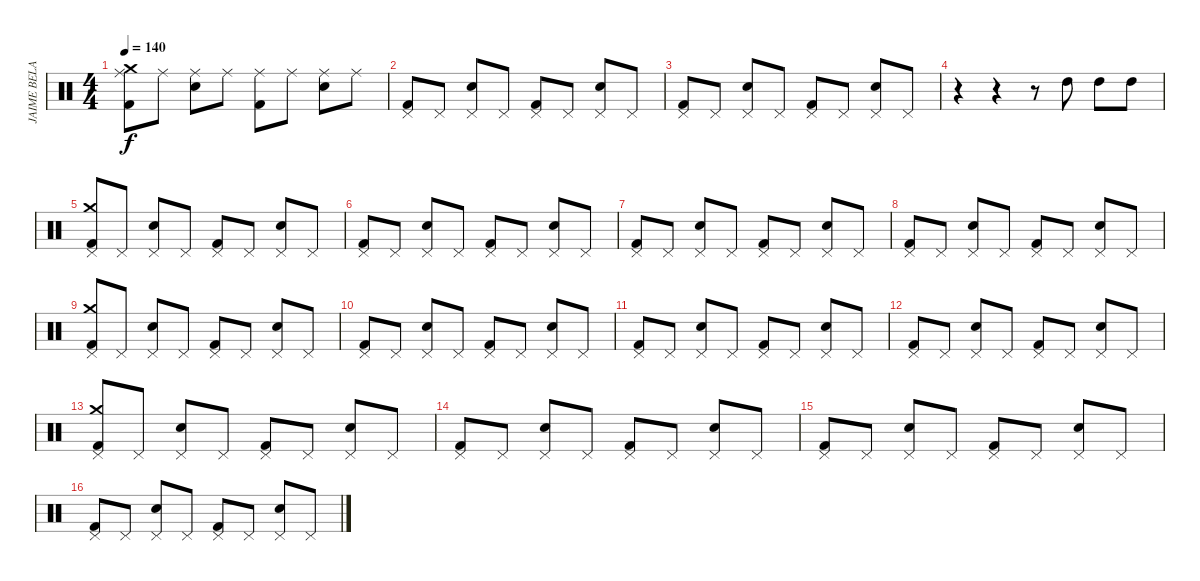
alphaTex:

\track ("JAIME BELAUSTEGUI" "JAIME BELA") {instrument percussion}
\staff {score}
\articulation defaults
\ts (4 4)
\tempo 140
\clef neutral
\ks c
("Kick (hit) 2" "Crash medium (hit)" "Ride (middle)").8{dy f} "Ride (middle)".8 ("Electric Snare (hit)" "Ride (middle)").8 "Ride (middle)".8 ("Kick (hit) 2" "Ride (middle)").8 "Ride (middle)".8 ("Electric Snare (hit)" "Ride (middle)").8 "Ride (middle)".8 |
("Kick (hit) 2" "Pedal Hi-Hat (hit)").8 "Pedal Hi-Hat (hit)".8 ("Electric Snare (hit)" "Pedal Hi-Hat (hit)").8 "Pedal Hi-Hat (hit)".8 ("Kick (hit) 2" "Pedal Hi-Hat (hit)").8 "Pedal Hi-Hat (hit)".8 ("Electric Snare (hit)" "Pedal Hi-Hat (hit)").8 "Pedal Hi-Hat (hit)".8 |
("Kick (hit) 2" "Pedal Hi-Hat (hit)").8 "Pedal Hi-Hat (hit)".8 ("Electric Snare (hit)" "Pedal Hi-Hat (hit)").8 "Pedal Hi-Hat (hit)".8 ("Kick (hit) 2" "Pedal Hi-Hat (hit)").8 "Pedal Hi-Hat (hit)".8 ("Electric Snare (hit)" "Pedal Hi-Hat (hit)").8 "Pedal Hi-Hat (hit)".8 |
r.4 r.4 r.8 "High Tom (hit)".8 "High Tom (hit)".8 "High Tom (hit)".8 |
("Kick (hit) 2" "Crash medium (hit)" "Pedal Hi-Hat (hit)").8 "Pedal Hi-Hat (hit)".8 ("Electric Snare (hit)" "Pedal Hi-Hat (hit)").8 "Pedal Hi-Hat (hit)".8 ("Kick (hit) 2" "Pedal Hi-Hat (hit)").8 "Pedal Hi-Hat (hit)".8 ("Electric Snare (hit)" "Pedal Hi-Hat (hit)").8 "Pedal Hi-Hat (hit)".8 |
("Kick (hit) 2" "Pedal Hi-Hat (hit)").8 "Pedal Hi-Hat (hit)".8 ("Electric Snare (hit)" "Pedal Hi-Hat (hit)").8 "Pedal Hi-Hat (hit)".8 ("Kick (hit) 2" "Pedal Hi-Hat (hit)").8 "Pedal Hi-Hat (hit)".8 ("Electric Snare (hit)" "Pedal Hi-Hat (hit)").8 "Pedal Hi-Hat (hit)".8 |
("Kick (hit) 2" "Pedal Hi-Hat (hit)").8 "Pedal Hi-Hat (hit)".8 ("Electric Snare (hit)" "Pedal Hi-Hat (hit)").8 "Pedal Hi-Hat (hit)".8 ("Kick (hit) 2" "Pedal Hi-Hat (hit)").8 "Pedal Hi-Hat (hit)".8 ("Electric Snare (hit)" "Pedal Hi-Hat (hit)").8 "Pedal Hi-Hat (hit)".8 |
("Kick (hit) 2" "Pedal Hi-Hat (hit)").8 "Pedal Hi-Hat (hit)".8 ("Electric Snare (hit)" "Pedal Hi-Hat (hit)").8 "Pedal Hi-Hat (hit)".8 ("Kick (hit) 2" "Pedal Hi-Hat (hit)").8 "Pedal Hi-Hat (hit)".8 ("Electric Snare (hit)" "Pedal Hi-Hat (hit)").8 "Pedal Hi-Hat (hit)".8 |
("Kick (hit) 2" "Crash medium (hit)" "Pedal Hi-Hat (hit)").8 "Pedal Hi-Hat (hit)".8 ("Electric Snare (hit)" "Pedal Hi-Hat (hit)").8 "Pedal Hi-Hat (hit)".8 ("Kick (hit) 2" "Pedal Hi-Hat (hit)").8 "Pedal Hi-Hat (hit)".8 ("Electric Snare (hit)" "Pedal Hi-Hat (hit)").8 "Pedal Hi-Hat (hit)".8 |
("Kick (hit) 2" "Pedal Hi-Hat (hit)").8 "Pedal Hi-Hat (hit)".8 ("Electric Snare (hit)" "Pedal Hi-Hat (hit)").8 "Pedal Hi-Hat (hit)".8 ("Kick (hit) 2" "Pedal Hi-Hat (hit)").8 "Pedal Hi-Hat (hit)".8 ("Electric Snare (hit)" "Pedal Hi-Hat (hit)").8 "Pedal Hi-Hat (hit)".8 |
("Kick (hit) 2" "Pedal Hi-Hat (hit)").8 "Pedal Hi-Hat (hit)".8 ("Electric Snare (hit)" "Pedal Hi-Hat (hit)").8 "Pedal Hi-Hat (hit)".8 ("Kick (hit) 2" "Pedal Hi-Hat (hit)").8 "Pedal Hi-Hat (hit)".8 ("Electric Snare (hit)" "Pedal Hi-Hat (hit)").8 "Pedal Hi-Hat (hit)".8 |
("Kick (hit) 2" "Pedal Hi-Hat (hit)").8 "Pedal Hi-Hat (hit)".8 ("Electric Snare (hit)" "Pedal Hi-Hat (hit)").8 "Pedal Hi-Hat (hit)".8 ("Kick (hit) 2" "Pedal Hi-Hat (hit)").8 "Pedal Hi-Hat (hit)".8 ("Electric Snare (hit)" "Pedal Hi-Hat (hit)").8 "Pedal Hi-Hat (hit)".8 |
("Kick (hit) 2" "Crash medium (hit)" "Pedal Hi-Hat (hit)").8 "Pedal Hi-Hat (hit)".8 ("Electric Snare (hit)" "Pedal Hi-Hat (hit)").8 "Pedal Hi-Hat (hit)".8 ("Kick (hit) 2" "Pedal Hi-Hat (hit)").8 "Pedal Hi-Hat (hit)".8 ("Electric Snare (hit)" "Pedal Hi-Hat (hit)").8 "Pedal Hi-Hat (hit)".8 |
("Kick (hit) 2" "Pedal Hi-Hat (hit)").8 "Pedal Hi-Hat (hit)".8 ("Electric Snare (hit)" "Pedal Hi-Hat (hit)").8 "Pedal Hi-Hat (hit)".8 ("Kick (hit) 2" "Pedal Hi-Hat (hit)").8 "Pedal Hi-Hat (hit)".8 ("Electric Snare (hit)" "Pedal Hi-Hat (hit)").8 "Pedal Hi-Hat (hit)".8 |
("Kick (hit) 2" "Pedal Hi-Hat (hit)").8 "Pedal Hi-Hat (hit)".8 ("Electric Snare (hit)" "Pedal Hi-Hat (hit)").8 "Pedal Hi-Hat (hit)".8 ("Kick (hit) 2" "Pedal Hi-Hat (hit)").8 "Pedal Hi-Hat (hit)".8 ("Electric Snare (hit)" "Pedal Hi-Hat (hit)").8 "Pedal Hi-Hat (hit)".8 |
("Kick (hit) 2" "Pedal Hi-Hat (hit)").8 "Pedal Hi-Hat (hit)".8 ("Electric Snare (hit)" "Pedal Hi-Hat (hit)").8 "Pedal Hi-Hat (hit)".8 ("Kick (hit) 2" "Pedal Hi-Hat (hit)").8 "Pedal Hi-Hat (hit)".8 ("Electric Snare (hit)" "Pedal Hi-Hat (hit)").8 "Pedal Hi-Hat (hit)".8
